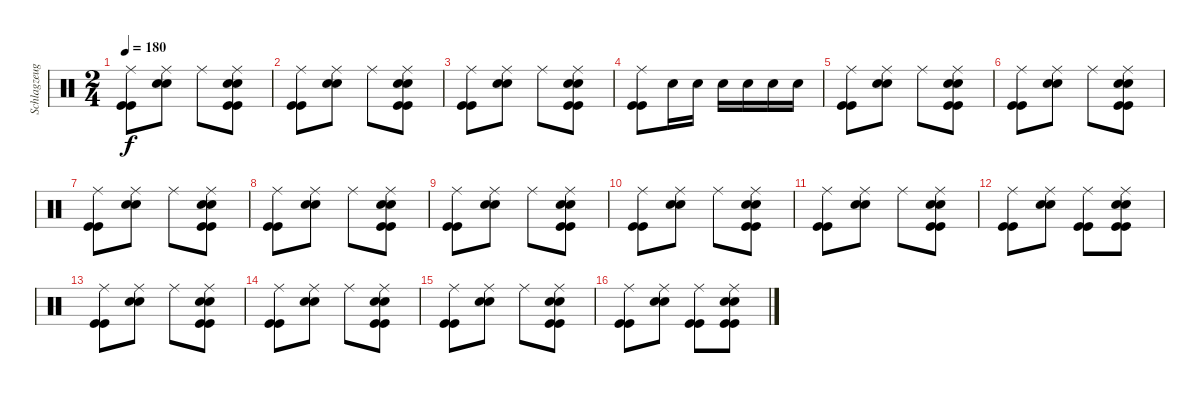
\track ("Schlagzeug" "Schlagzeug") {instrument percussion}
\staff {score}
\articulation defaults
\ts (2 4)
\tempo 180
\clef neutral
\ks c
("Ride (middle)" "Kick (hit)" "Kick (hit)").8{dy f} ("Ride (middle)" "Electric Snare (hit)" "Electric Snare (hit)").8 "Ride (middle)".8 ("Ride (middle)" "Electric Snare (hit)" "Electric Snare (hit)" "Kick (hit)" "Kick (hit)").8 |
("Ride (middle)" "Kick (hit)" "Kick (hit)").8 ("Ride (middle)" "Electric Snare (hit)" "Electric Snare (hit)").8 "Ride (middle)".8 ("Ride (middle)" "Electric Snare (hit)" "Electric Snare (hit)" "Kick (hit)" "Kick (hit)").8 |
("Ride (middle)" "Kick (hit)" "Kick (hit)").8 ("Ride (middle)" "Electric Snare (hit)" "Electric Snare (hit)").8 "Ride (middle)".8 ("Ride (middle)" "Electric Snare (hit)" "Electric Snare (hit)" "Kick (hit)" "Kick (hit)").8 |
("Ride (middle)" "Kick (hit)" "Kick (hit)").8 "Electric Snare (hit)".16 "Electric Snare (hit)".16 "Electric Snare (hit)".16 "Electric Snare (hit)".16 "Electric Snare (hit)".16 "Electric Snare (hit)".16 |
("Ride (middle)" "Kick (hit)" "Kick (hit)").8 ("Ride (middle)" "Electric Snare (hit)" "Electric Snare (hit)").8 "Ride (middle)".8 ("Ride (middle)" "Electric Snare (hit)" "Electric Snare (hit)" "Kick (hit)" "Kick (hit)").8 |
("Ride (middle)" "Kick (hit)" "Kick (hit)").8 ("Ride (middle)" "Electric Snare (hit)" "Electric Snare (hit)").8 "Ride (middle)".8 ("Ride (middle)" "Electric Snare (hit)" "Electric Snare (hit)" "Kick (hit)" "Kick (hit)").8 |
("Ride (middle)" "Kick (hit)" "Kick (hit)").8 ("Ride (middle)" "Electric Snare (hit)" "Electric Snare (hit)").8 "Ride (middle)".8 ("Ride (middle)" "Electric Snare (hit)" "Electric Snare (hit)" "Kick (hit)" "Kick (hit)").8 |
("Ride (middle)" "Kick (hit)" "Kick (hit)").8 ("Ride (middle)" "Electric Snare (hit)" "Electric Snare (hit)").8 "Ride (middle)".8 ("Ride (middle)" "Electric Snare (hit)" "Electric Snare (hit)" "Kick (hit)" "Kick (hit)").8 |
("Ride (middle)" "Kick (hit)" "Kick (hit)").8 ("Ride (middle)" "Electric Snare (hit)" "Electric Snare (hit)").8 "Ride (middle)".8 ("Ride (middle)" "Electric Snare (hit)" "Electric Snare (hit)" "Kick (hit)" "Kick (hit)").8 |
("Ride (middle)" "Kick (hit)" "Kick (hit)").8 ("Ride (middle)" "Electric Snare (hit)" "Electric Snare (hit)").8 "Ride (middle)".8 ("Ride (middle)" "Electric Snare (hit)" "Electric Snare (hit)" "Kick (hit)" "Kick (hit)").8 |
("Ride (middle)" "Kick (hit)" "Kick (hit)").8 ("Ride (middle)" "Electric Snare (hit)" "Electric Snare (hit)").8 "Ride (middle)".8 ("Ride (middle)" "Electric Snare (hit)" "Electric Snare (hit)" "Kick (hit)" "Kick (hit)").8 |
("Ride (middle)" "Kick (hit)" "Kick (hit)").8 ("Ride (middle)" "Electric Snare (hit)" "Electric Snare (hit)").8 ("Ride (middle)" "Kick (hit)" "Kick (hit)").8 ("Ride (middle)" "Electric Snare (hit)" "Electric Snare (hit)" "Kick (hit)" "Kick (hit)").8 |
("Ride (middle)" "Kick (hit)" "Kick (hit)").8 ("Ride (middle)" "Electric Snare (hit)" "Electric Snare (hit)").8 "Ride (middle)".8 ("Ride (middle)" "Electric Snare (hit)" "Electric Snare (hit)" "Kick (hit)" "Kick (hit)").8 |
("Ride (middle)" "Kick (hit)" "Kick (hit)").8 ("Ride (middle)" "Electric Snare (hit)" "Electric Snare (hit)").8 "Ride (middle)".8 ("Ride (middle)" "Electric Snare (hit)" "Electric Snare (hit)" "Kick (hit)" "Kick (hit)").8 |
("Ride (middle)" "Kick (hit)" "Kick (hit)").8 ("Ride (middle)" "Electric Snare (hit)" "Electric Snare (hit)").8 "Ride (middle)".8 ("Ride (middle)" "Electric Snare (hit)" "Electric Snare (hit)" "Kick (hit)" "Kick (hit)").8 |
("Ride (middle)" "Kick (hit)" "Kick (hit)").8 ("Ride (middle)" "Electric Snare (hit)" "Electric Snare (hit)").8 ("Ride (middle)" "Kick (hit)" "Kick (hit)").8 ("Ride (middle)" "Electric Snare (hit)" "Electric Snare (hit)" "Kick (hit)" "Kick (hit)").8
